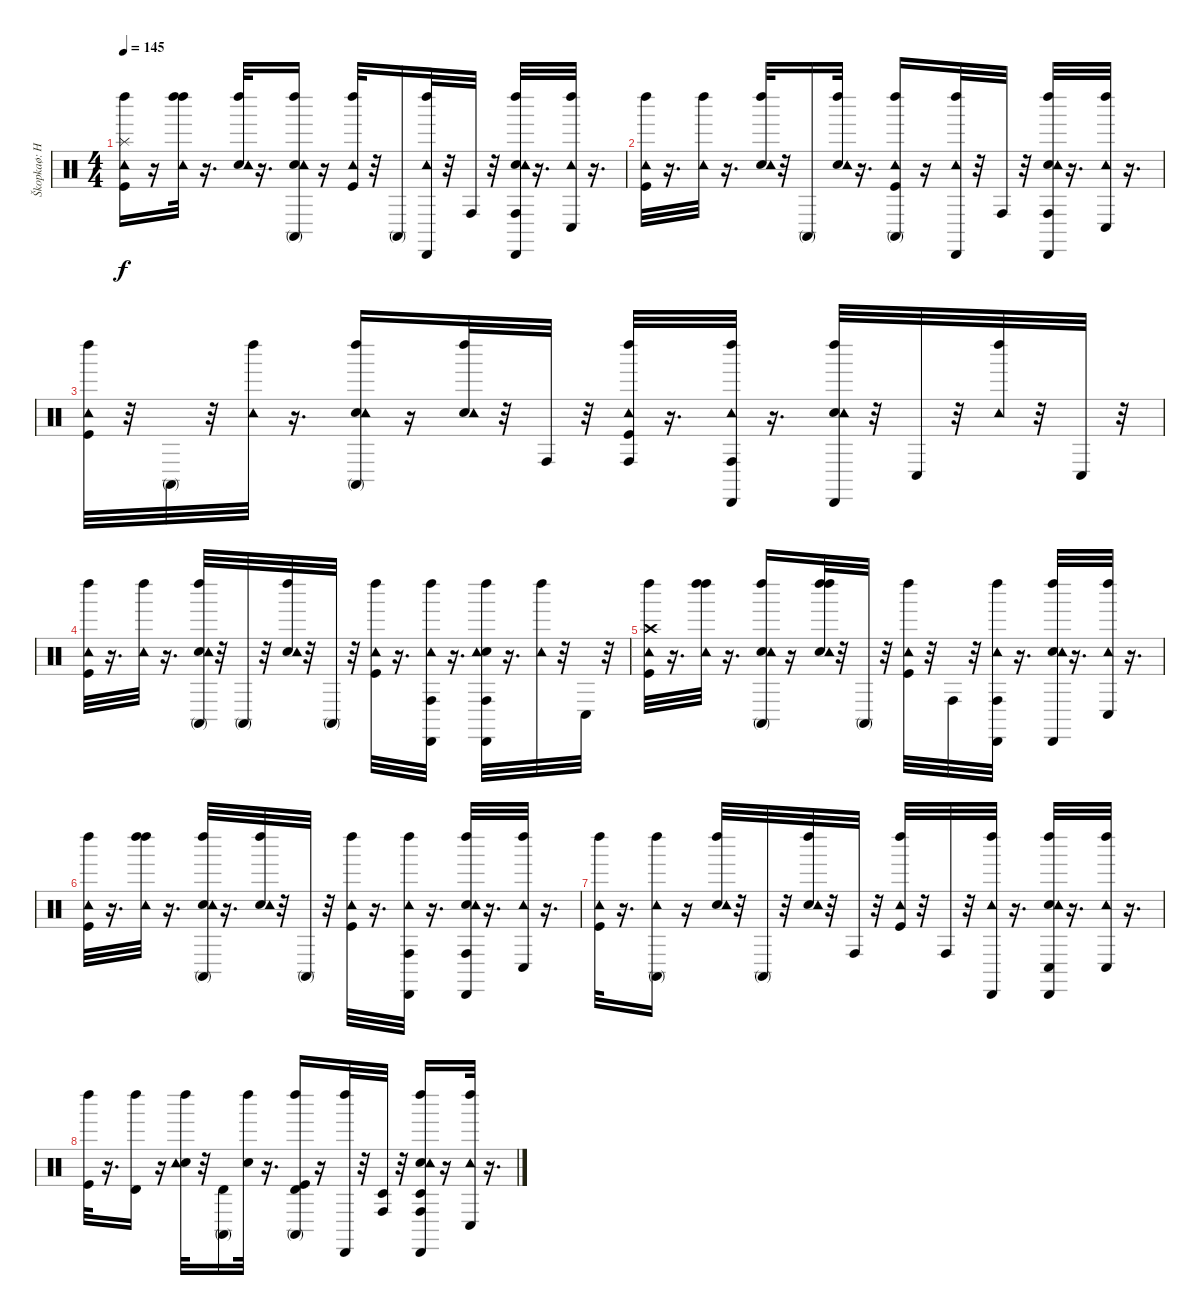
\track ("Škopkaø: Hurvajs" "Škopkaø: H") {instrument percussion}
\staff {score}
\articulation defaults
\ts (4 4)
\tempo 145
\clef neutral
\ks c
("Kick (hit)" "Tambourine (hit)" "Left Maraca (hit)" "Splash (hit)").16{dy f} r.16 ("Tambourine (hit)" "Left Maraca (hit)" "Left Maraca (hit)").32 r.16{d} ("Snare (hit) 2" "Tambourine (hit)" "Left Maraca (hit)").32 r.16{d} ("Snare (hit) 2" "Tambourine (hit)" "Conga high (mute)" "Left Maraca (hit)").16 r.16 ("Kick (hit)" "Tambourine (hit)" "Left Maraca (hit)").32 r.32 "Conga high (mute)".16 ("Tambourine (hit)" "Cabasa (hit)" "Left Maraca (hit)").32 r.32 "Conga high (hit)".32 r.32 ("Snare (hit) 2" "Tambourine (hit)" "Conga high (hit)" "Cabasa (hit)" "Left Maraca (hit)").32 r.16{d} ("Tambourine (hit)" "Conga low (hit)" "Left Maraca (hit)").32 r.16{d} |
("Kick (hit)" "Tambourine (hit)" "Left Maraca (hit)").32 r.16{d} ("Tambourine (hit)" "Left Maraca (hit)").32 r.16{d} ("Snare (hit) 2" "Tambourine (hit)" "Left Maraca (hit)").32 r.32 "Conga high (mute)".16 ("Snare (hit) 2" "Tambourine (hit)" "Left Maraca (hit)").32 r.16{d} ("Kick (hit)" "Tambourine (hit)" "Conga high (mute)" "Left Maraca (hit)").16 r.16 ("Tambourine (hit)" "Cabasa (hit)" "Left Maraca (hit)").32 r.32 "Conga high (hit)".32 r.32 ("Snare (hit) 2" "Tambourine (hit)" "Conga high (hit)" "Cabasa (hit)" "Left Maraca (hit)").32 r.16{d} ("Tambourine (hit)" "Conga low (hit)" "Left Maraca (hit)").32 r.16{d} |
("Kick (hit)" "Tambourine (hit)" "Left Maraca (hit)").32 r.32 "Conga high (mute)".32 r.32 ("Tambourine (hit)" "Left Maraca (hit)").32 r.16{d} ("Snare (hit) 2" "Tambourine (hit)" "Conga high (mute)" "Left Maraca (hit)").16 r.16 ("Snare (hit) 2" "Tambourine (hit)" "Left Maraca (hit)").32 r.32 "Conga high (hit)".32 r.32 ("Kick (hit)" "Tambourine (hit)" "Conga high (hit)" "Left Maraca (hit)").32 r.16{d} ("Tambourine (hit)" "Conga high (hit)" "Cabasa (hit)" "Left Maraca (hit)").32 r.16{d} ("Snare (hit) 2" "Tambourine (hit)" "Cabasa (hit)" "Left Maraca (hit)").32 r.32 "Conga low (hit)".32 r.32 ("Tambourine (hit)" "Left Maraca (hit)").32 r.32 "Conga low (hit)".32 r.32 |
("Kick (hit)" "Tambourine (hit)" "Left Maraca (hit)").32 r.16{d} ("Tambourine (hit)" "Left Maraca (hit)").32 r.16{d} ("Snare (hit) 2" "Tambourine (hit)" "Conga high (mute)" "Left Maraca (hit)").32 r.32 "Conga high (mute)".32 r.32 ("Snare (hit) 2" "Tambourine (hit)" "Left Maraca (hit)").32 r.32 "Conga high (mute)".32 r.32 ("Kick (hit)" "Tambourine (hit)" "Left Maraca (hit)").32 r.16{d} ("Tambourine (hit)" "Conga high (hit)" "Cabasa (hit)" "Left Maraca (hit)").32 r.16{d} ("Snare (hit) 2" "Tambourine (hit)" "Conga high (hit)" "Cabasa (hit)" "Left Maraca (hit)").32 r.16{d} ("Tambourine (hit)" "Left Maraca (hit)").32 r.32 "Conga low (hit)".32 r.32 |
("Crash high (hit)" "Kick (hit)" "Tambourine (hit)" "Left Maraca (hit)").32{volume 8} r.16{d} ("Tambourine (hit)" "Left Maraca (hit)" "Left Maraca (hit)").32 r.16{d} ("Snare (hit) 2" "Tambourine (hit)" "Conga high (mute)" "Left Maraca (hit)").16 r.16 ("Snare (hit) 2" "Tambourine (hit)" "Left Maraca (hit)" "Left Maraca (hit)").32 r.32 "Conga high (mute)".32 r.32 ("Kick (hit)" "Tambourine (hit)" "Left Maraca (hit)").32 r.32 "Conga high (hit)".32 r.32 ("Tambourine (hit)" "Conga high (hit)" "Cabasa (hit)" "Left Maraca (hit)").32 r.16{d} ("Snare (hit) 2" "Tambourine (hit)" "Cabasa (hit)" "Left Maraca (hit)").32 r.16{d} ("Tambourine (hit)" "Conga low (hit)" "Left Maraca (hit)").32 r.16{d} |
("Kick (hit)" "Tambourine (hit)" "Left Maraca (hit)").32 r.16{d} ("Tambourine (hit)" "Left Maraca (hit)" "Left Maraca (hit)").32 r.16{d} ("Snare (hit) 2" "Tambourine (hit)" "Conga high (mute)" "Left Maraca (hit)").32 r.16{d} ("Snare (hit) 2" "Tambourine (hit)" "Left Maraca (hit)").32 r.32 "Conga high (mute)".32 r.32 ("Kick (hit)" "Tambourine (hit)" "Left Maraca (hit)").32 r.16{d} ("Tambourine (hit)" "Conga high (hit)" "Cabasa (hit)" "Left Maraca (hit)").32 r.16{d} ("Snare (hit) 2" "Tambourine (hit)" "Conga high (hit)" "Cabasa (hit)" "Left Maraca (hit)").32 r.16{d} ("Tambourine (hit)" "Conga low (hit)" "Left Maraca (hit)").32 r.16{d} |
("Kick (hit)" "Tambourine (hit)" "Left Maraca (hit)").32 r.16{d} ("Tambourine (hit)" "Conga high (mute)" "Left Maraca (hit)").16 r.16 ("Snare (hit) 2" "Tambourine (hit)" "Left Maraca (hit)").32 r.32 "Conga high (mute)".32 r.32 ("Snare (hit) 2" "Tambourine (hit)" "Left Maraca (hit)").32 r.32 "Conga high (hit)".32 r.32 ("Kick (hit)" "Tambourine (hit)" "Left Maraca (hit)").32 r.32 "Conga high (hit)".32 r.32 ("Tambourine (hit)" "Cabasa (hit)" "Left Maraca (hit)").32 r.16{d} ("Snare (hit) 2" "Tambourine (hit)" "Conga low (hit)" "Cabasa (hit)" "Left Maraca (hit)").32 r.16{d} ("Tambourine (hit)" "Conga low (hit)" "Left Maraca (hit)").32 r.16{d} |
("Kick (hit)" "Left Maraca (hit)").32 r.16{d} ("Timbale high (hit)" "Left Maraca (hit)").16 r.16 ("Snare (hit) 2" "Tambourine (hit)" "Left Maraca (hit)").32 r.32 ("Conga high (mute)" "Timbale high (hit)").16 ("Snare (hit) 2" "Left Maraca (hit)").32 r.16{d} ("Timbale high (hit)" "Kick (hit)" "Conga high (mute)" "Left Maraca (hit)").16 r.16 ("Cabasa (hit)" "Left Maraca (hit)").32 r.32 ("Conga high (hit)" "Timbale low (hit)").32 r.32 ("Snare (hit) 2" "Tambourine (hit)" "Conga high (hit)" "Cabasa (hit)" "Left Maraca (hit)" "Timbale low (hit)").16 r.16 ("Tambourine (hit)" "Conga low (hit)" "Left Maraca (hit)").32 r.16{d}
